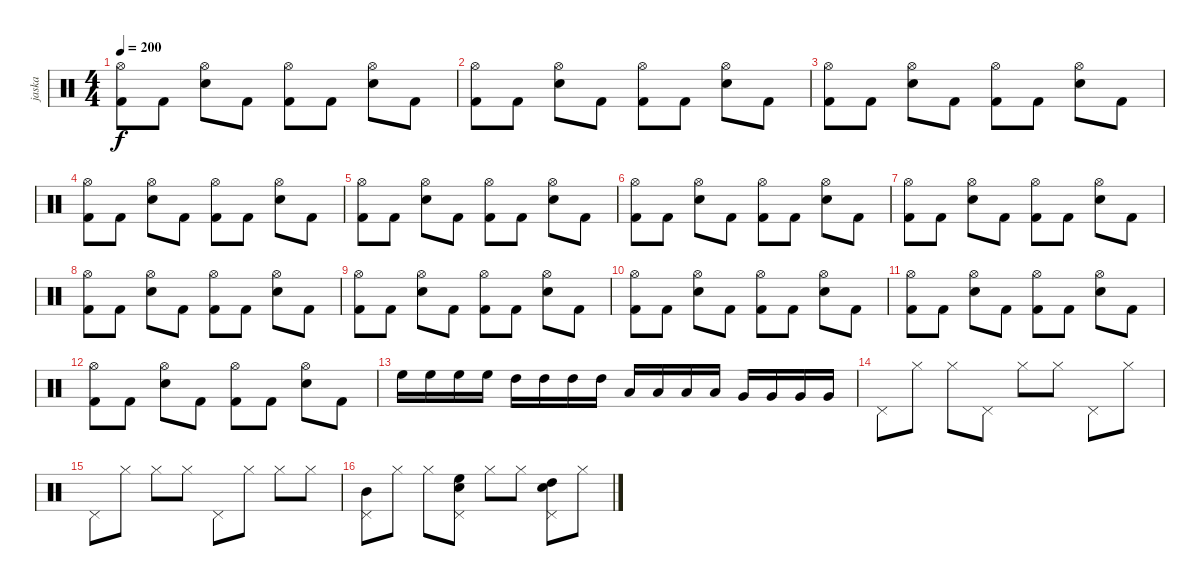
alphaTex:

\track ("jaska" "jaska") {instrument percussion}
\staff {score}
\articulation defaults
\ts (4 4)
\tempo 200
\clef neutral
\ks c
("Hi-Hat (open)" "Kick (hit) 2").8{dy f} "Kick (hit) 2".8 ("Hi-Hat (open)" "Electric Snare (hit)").8 "Kick (hit) 2".8 ("Hi-Hat (open)" "Kick (hit) 2").8 "Kick (hit) 2".8 ("Hi-Hat (open)" "Electric Snare (hit)").8 "Kick (hit) 2".8 |
("Hi-Hat (open)" "Kick (hit) 2").8 "Kick (hit) 2".8 ("Hi-Hat (open)" "Electric Snare (hit)").8 "Kick (hit) 2".8 ("Hi-Hat (open)" "Kick (hit) 2").8 "Kick (hit) 2".8 ("Hi-Hat (open)" "Electric Snare (hit)").8 "Kick (hit) 2".8 |
("Hi-Hat (open)" "Kick (hit) 2").8 "Kick (hit) 2".8 ("Hi-Hat (open)" "Electric Snare (hit)").8 "Kick (hit) 2".8 ("Hi-Hat (open)" "Kick (hit) 2").8 "Kick (hit) 2".8 ("Hi-Hat (open)" "Electric Snare (hit)").8 "Kick (hit) 2".8 |
("Hi-Hat (open)" "Kick (hit) 2").8 "Kick (hit) 2".8 ("Hi-Hat (open)" "Electric Snare (hit)").8 "Kick (hit) 2".8 ("Hi-Hat (open)" "Kick (hit) 2").8 "Kick (hit) 2".8 ("Hi-Hat (open)" "Electric Snare (hit)").8 "Kick (hit) 2".8 |
("Hi-Hat (open)" "Kick (hit) 2").8 "Kick (hit) 2".8 ("Hi-Hat (open)" "Electric Snare (hit)").8 "Kick (hit) 2".8 ("Hi-Hat (open)" "Kick (hit) 2").8 "Kick (hit) 2".8 ("Hi-Hat (open)" "Electric Snare (hit)").8 "Kick (hit) 2".8 |
("Hi-Hat (open)" "Kick (hit) 2").8 "Kick (hit) 2".8 ("Hi-Hat (open)" "Electric Snare (hit)").8 "Kick (hit) 2".8 ("Hi-Hat (open)" "Kick (hit) 2").8 "Kick (hit) 2".8 ("Hi-Hat (open)" "Electric Snare (hit)").8 "Kick (hit) 2".8 |
("Hi-Hat (open)" "Kick (hit) 2").8 "Kick (hit) 2".8 ("Hi-Hat (open)" "Electric Snare (hit)").8 "Kick (hit) 2".8 ("Hi-Hat (open)" "Kick (hit) 2").8 "Kick (hit) 2".8 ("Hi-Hat (open)" "Electric Snare (hit)").8 "Kick (hit) 2".8 |
("Hi-Hat (open)" "Kick (hit) 2").8 "Kick (hit) 2".8 ("Hi-Hat (open)" "Electric Snare (hit)").8 "Kick (hit) 2".8 ("Hi-Hat (open)" "Kick (hit) 2").8 "Kick (hit) 2".8 ("Hi-Hat (open)" "Electric Snare (hit)").8 "Kick (hit) 2".8 |
("Hi-Hat (open)" "Kick (hit) 2").8 "Kick (hit) 2".8 ("Hi-Hat (open)" "Electric Snare (hit)").8 "Kick (hit) 2".8 ("Hi-Hat (open)" "Kick (hit) 2").8 "Kick (hit) 2".8 ("Hi-Hat (open)" "Electric Snare (hit)").8 "Kick (hit) 2".8 |
("Hi-Hat (open)" "Kick (hit) 2").8 "Kick (hit) 2".8 ("Hi-Hat (open)" "Electric Snare (hit)").8 "Kick (hit) 2".8 ("Hi-Hat (open)" "Kick (hit) 2").8 "Kick (hit) 2".8 ("Hi-Hat (open)" "Electric Snare (hit)").8 "Kick (hit) 2".8 |
("Hi-Hat (open)" "Kick (hit) 2").8 "Kick (hit) 2".8 ("Hi-Hat (open)" "Electric Snare (hit)").8 "Kick (hit) 2".8 ("Hi-Hat (open)" "Kick (hit) 2").8 "Kick (hit) 2".8 ("Hi-Hat (open)" "Electric Snare (hit)").8 "Kick (hit) 2".8 |
("Hi-Hat (open)" "Kick (hit) 2").8 "Kick (hit) 2".8 ("Hi-Hat (open)" "Electric Snare (hit)").8 "Kick (hit) 2".8 ("Hi-Hat (open)" "Kick (hit) 2").8 "Kick (hit) 2".8 ("Hi-Hat (open)" "Electric Snare (hit)").8 "Kick (hit) 2".8 |
"High Floor Tom (hit)".16 "High Floor Tom (hit)".16 "High Floor Tom (hit)".16 "High Floor Tom (hit)".16 "High Tom (hit)".16 "High Tom (hit)".16 "High Tom (hit)".16 "High Tom (hit)".16 "Low Tom (hit)".16 "Low Tom (hit)".16 "Low Tom (hit)".16 "Low Tom (hit)".16 "Very Low Tom (hit)".16 "Very Low Tom (hit)".16 "Very Low Tom (hit)".16 "Very Low Tom (hit)".16 |
"Pedal Hi-Hat (hit)".8 "Hi-Hat (closed)".8 "Hi-Hat (closed)".8 "Pedal Hi-Hat (hit)".8 "Hi-Hat (closed)".8 "Hi-Hat (closed)".8 "Pedal Hi-Hat (hit)".8 "Hi-Hat (closed)".8 |
"Pedal Hi-Hat (hit)".8 "Hi-Hat (closed)".8 "Hi-Hat (closed)".8 "Hi-Hat (closed)".8 "Pedal Hi-Hat (hit)".8 "Hi-Hat (closed)".8 "Hi-Hat (closed)".8 "Hi-Hat (closed)".8 |
("Pedal Hi-Hat (hit)" "Mid Tom (hit)").8 "Hi-Hat (closed)".8 "Hi-Hat (closed)".8 ("Pedal Hi-Hat (hit)" "High Floor Tom (hit)" "Electric Snare (hit)").8 "Hi-Hat (closed)".8 "Hi-Hat (closed)".8 ("Pedal Hi-Hat (hit)" "High Tom (hit)" "Electric Snare (hit)").8 "Hi-Hat (closed)".8
